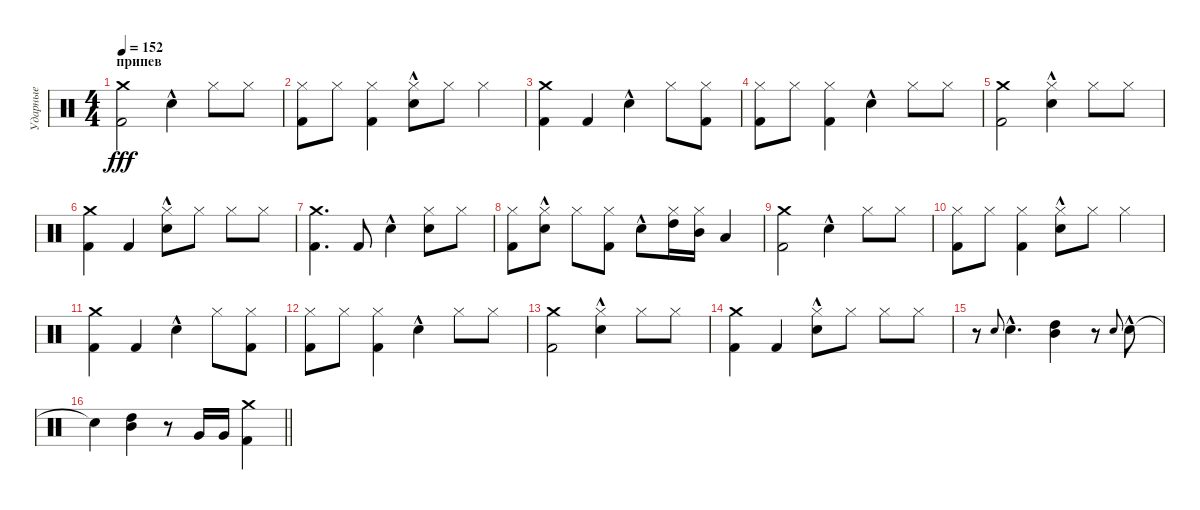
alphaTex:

\track ("Ударные" "Ударные") {instrument percussion}
\staff {score}
\articulation defaults
\ts (4 4)
\section ("" "припев")
\tempo 152
\clef neutral
\ks c
("Crash medium (hit)" "Kick (hit) 2").2{dy fff} "Electric Snare (hit)"{hac}.4 "Hi-Hat (closed)".8 "Hi-Hat (closed)".8 |
("Hi-Hat (closed)" "Kick (hit) 2").8 "Hi-Hat (closed)".8 ("Hi-Hat (closed)" "Kick (hit) 2").4 ("Hi-Hat (closed)" "Electric Snare (hit)"{hac}).8 "Hi-Hat (closed)".8 "Hi-Hat (closed)".4 |
("Crash medium (hit)" "Kick (hit) 2").4 "Kick (hit) 2".4 "Electric Snare (hit)"{hac}.4 "Hi-Hat (closed)".8 ("Hi-Hat (closed)" "Kick (hit) 2").8 |
("Hi-Hat (closed)" "Kick (hit) 2").8 "Hi-Hat (closed)".8 ("Hi-Hat (closed)" "Kick (hit) 2").4 "Electric Snare (hit)"{hac}.4 "Hi-Hat (closed)".8 "Hi-Hat (closed)".8 |
("Crash medium (hit)" "Kick (hit) 2").2 ("Hi-Hat (closed)" "Electric Snare (hit)"{hac}).4 "Hi-Hat (closed)".8 "Hi-Hat (closed)".8 |
("Crash medium (hit)" "Kick (hit) 2").4 "Kick (hit) 2".4 ("Hi-Hat (closed)" "Electric Snare (hit)"{hac}).8 "Hi-Hat (closed)".8 "Hi-Hat (closed)".8 "Hi-Hat (closed)".8 |
("Crash medium (hit)" "Kick (hit) 2").4{d} "Kick (hit) 2".8 "Electric Snare (hit)"{hac}.4 ("Hi-Hat (closed)" "Electric Snare (hit)").8 "Hi-Hat (closed)".8 |
("Hi-Hat (closed)" "Kick (hit) 2").8 ("Hi-Hat (closed)" "Electric Snare (hit)"{hac}).8 "Hi-Hat (closed)".8 ("Hi-Hat (closed)" "Kick (hit) 2").8 "Electric Snare (hit)"{hac}.8 ("Hi-Hat (closed)" "High Tom (hit)").16 ("Hi-Hat (closed)" "Mid Tom (hit)").16 "Low Tom (hit)".4 |
("Crash medium (hit)" "Kick (hit) 2").2 "Electric Snare (hit)"{hac}.4 "Hi-Hat (closed)".8 "Hi-Hat (closed)".8 |
("Hi-Hat (closed)" "Kick (hit) 2").8 "Hi-Hat (closed)".8 ("Hi-Hat (closed)" "Kick (hit) 2").4 ("Hi-Hat (closed)" "Electric Snare (hit)"{hac}).8 "Hi-Hat (closed)".8 "Hi-Hat (closed)".4 |
("Crash medium (hit)" "Kick (hit) 2").4 "Kick (hit) 2".4 "Electric Snare (hit)"{hac}.4 "Hi-Hat (closed)".8 ("Hi-Hat (closed)" "Kick (hit) 2").8 |
("Hi-Hat (closed)" "Kick (hit) 2").8 "Hi-Hat (closed)".8 ("Hi-Hat (closed)" "Kick (hit) 2").4 "Electric Snare (hit)"{hac}.4 "Hi-Hat (closed)".8 "Hi-Hat (closed)".8 |
("Crash medium (hit)" "Kick (hit) 2").2 ("Hi-Hat (closed)" "Electric Snare (hit)"{hac}).4 "Hi-Hat (closed)".8 "Hi-Hat (closed)".8 |
("Crash medium (hit)" "Kick (hit) 2").4 "Kick (hit) 2".4 ("Hi-Hat (closed)" "Electric Snare (hit)"{hac}).8 "Hi-Hat (closed)".8 "Hi-Hat (closed)".8 "Hi-Hat (closed)".8 |
r.8 "Electric Snare (hit)".8{gr onbeat} "Electric Snare (hit)"{hac}.4{d} ("High Tom (hit)" "Mid Tom (hit)").4 r.8 "Electric Snare (hit)".8{gr onbeat} "Electric Snare (hit)"{hac}.8 |
\barLineRight lightlight "Electric Snare (hit)"{t}.4
("High Tom (hit)" "Mid Tom (hit)").4 r.8 "Very Low Tom (hit)".16 "Very Low Tom (hit)".16 ("Crash medium (hit)" "Kick (hit) 2").4
